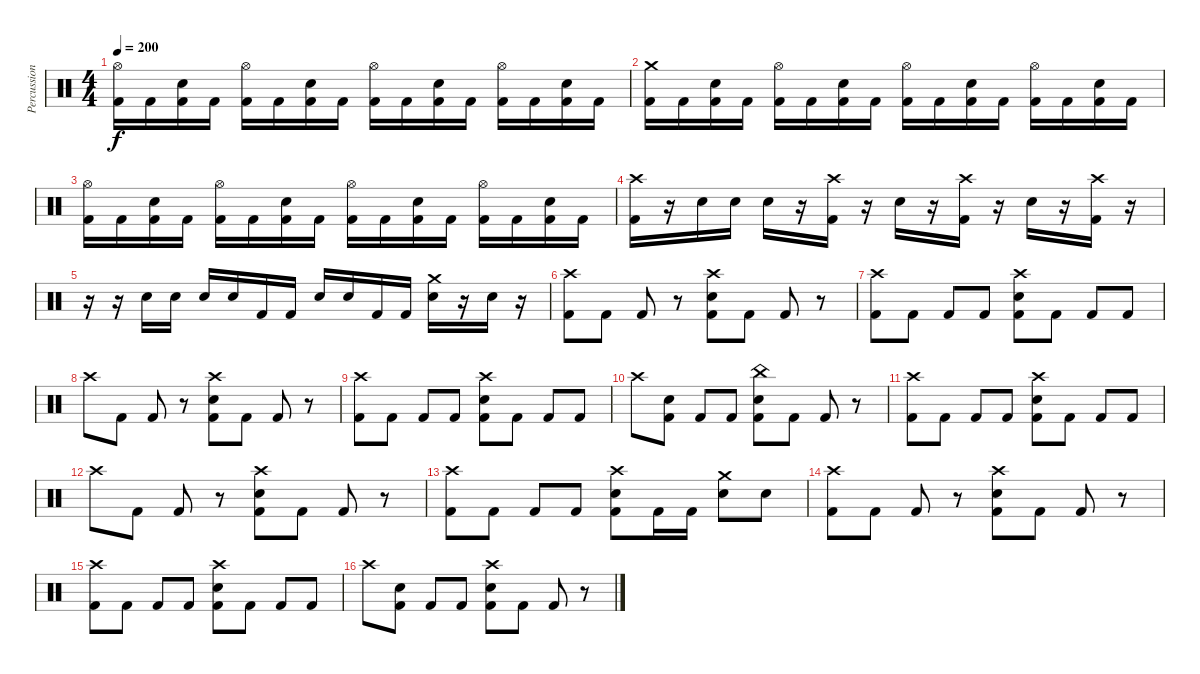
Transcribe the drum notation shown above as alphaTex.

\track ("Percussion" "Percussion") {instrument percussion}
\staff {score}
\articulation defaults
\ts (4 4)
\tempo 200
\clef neutral
\ks c
("Hi-Hat (open)" "Kick (hit) 2").16{dy f} "Kick (hit) 2".16 ("Electric Snare (hit)" "Kick (hit) 2").16 "Kick (hit) 2".16 ("Hi-Hat (open)" "Kick (hit) 2").16 "Kick (hit) 2".16 ("Electric Snare (hit)" "Kick (hit) 2").16 "Kick (hit) 2".16 ("Hi-Hat (open)" "Kick (hit) 2").16 "Kick (hit) 2".16 ("Electric Snare (hit)" "Kick (hit) 2").16 "Kick (hit) 2".16 ("Hi-Hat (open)" "Kick (hit) 2").16 "Kick (hit) 2".16 ("Electric Snare (hit)" "Kick (hit) 2").16 "Kick (hit) 2".16 |
("Crash medium (hit)" "Kick (hit) 2").16 "Kick (hit) 2".16 ("Electric Snare (hit)" "Kick (hit) 2").16 "Kick (hit) 2".16 ("Hi-Hat (open)" "Kick (hit) 2").16 "Kick (hit) 2".16 ("Electric Snare (hit)" "Kick (hit) 2").16 "Kick (hit) 2".16 ("Hi-Hat (open)" "Kick (hit) 2").16 "Kick (hit) 2".16 ("Electric Snare (hit)" "Kick (hit) 2").16 "Kick (hit) 2".16 ("Hi-Hat (open)" "Kick (hit) 2").16 "Kick (hit) 2".16 ("Electric Snare (hit)" "Kick (hit) 2").16 "Kick (hit) 2".16 |
("Hi-Hat (open)" "Kick (hit) 2").16 "Kick (hit) 2".16 ("Electric Snare (hit)" "Kick (hit) 2").16 "Kick (hit) 2".16 ("Hi-Hat (open)" "Kick (hit) 2").16 "Kick (hit) 2".16 ("Electric Snare (hit)" "Kick (hit) 2").16 "Kick (hit) 2".16 ("Hi-Hat (open)" "Kick (hit) 2").16 "Kick (hit) 2".16 ("Electric Snare (hit)" "Kick (hit) 2").16 "Kick (hit) 2".16 ("Hi-Hat (open)" "Kick (hit) 2").16 "Kick (hit) 2".16 ("Electric Snare (hit)" "Kick (hit) 2").16 "Kick (hit) 2".16 |
("Crash high (hit)" "Kick (hit) 2").16 r.16 "Electric Snare (hit)".16 "Electric Snare (hit)".16 "Electric Snare (hit)".16 r.16 ("Crash high (hit)" "Kick (hit) 2").16 r.16 "Electric Snare (hit)".16 r.16 ("Crash high (hit)" "Kick (hit) 2").16 r.16 "Electric Snare (hit)".16 r.16 ("Crash high (hit)" "Kick (hit) 2").16 r.16 |
r.16 r.16 "Electric Snare (hit)".16 "Electric Snare (hit)".16 "Electric Snare (hit)".16 "Electric Snare (hit)".16 "Kick (hit) 2".16 "Kick (hit) 2".16 "Electric Snare (hit)".16 "Electric Snare (hit)".16 "Kick (hit) 2".16 "Kick (hit) 2".16 ("Crash medium (hit)" "Electric Snare (hit)").16 r.16 "Electric Snare (hit)".16 r.16 |
("Crash high (hit)" "Kick (hit) 2").8 "Kick (hit) 2".8 "Kick (hit) 2".8 r.8 ("Crash high (hit)" "Electric Snare (hit)" "Kick (hit) 2").8 "Kick (hit) 2".8 "Kick (hit) 2".8 r.8 |
("Crash high (hit)" "Kick (hit) 2").8 "Kick (hit) 2".8 "Kick (hit) 2".8 "Kick (hit) 2".8 ("Crash high (hit)" "Electric Snare (hit)" "Kick (hit) 2").8 "Kick (hit) 2".8 "Kick (hit) 2".8 "Kick (hit) 2".8 |
"Crash high (hit)".8 "Kick (hit) 2".8 "Kick (hit) 2".8 r.8 ("Crash high (hit)" "Electric Snare (hit)" "Kick (hit) 2").8 "Kick (hit) 2".8 "Kick (hit) 2".8 r.8 |
("Crash high (hit)" "Kick (hit) 2").8 "Kick (hit) 2".8 "Kick (hit) 2".8 "Kick (hit) 2".8 ("Crash high (hit)" "Electric Snare (hit)" "Kick (hit) 2").8 "Kick (hit) 2".8 "Kick (hit) 2".8 "Kick (hit) 2".8 |
"Crash high (hit)".8 ("Electric Snare (hit)" "Kick (hit) 2").8 "Kick (hit) 2".8 "Kick (hit) 2".8 ("China (hit)" "Electric Snare (hit)" "Kick (hit) 2").8 "Kick (hit) 2".8 "Kick (hit) 2".8 r.8 |
("Crash high (hit)" "Kick (hit) 2").8 "Kick (hit) 2".8 "Kick (hit) 2".8 "Kick (hit) 2".8 ("Crash high (hit)" "Electric Snare (hit)" "Kick (hit) 2").8 "Kick (hit) 2".8 "Kick (hit) 2".8 "Kick (hit) 2".8 |
"Crash high (hit)".8 "Kick (hit) 2".8 "Kick (hit) 2".8 r.8 ("Crash high (hit)" "Electric Snare (hit)" "Kick (hit) 2").8 "Kick (hit) 2".8 "Kick (hit) 2".8 r.8 |
("Crash high (hit)" "Kick (hit) 2").8 "Kick (hit) 2".8 "Kick (hit) 2".8 "Kick (hit) 2".8 ("Crash high (hit)" "Electric Snare (hit)" "Kick (hit) 2").8 "Kick (hit) 2".16 "Kick (hit) 2".16 ("Crash medium (hit)" "Electric Snare (hit)").8 "Electric Snare (hit)".8 |
("Crash high (hit)" "Kick (hit) 2").8 "Kick (hit) 2".8 "Kick (hit) 2".8 r.8 ("Crash high (hit)" "Electric Snare (hit)" "Kick (hit) 2").8 "Kick (hit) 2".8 "Kick (hit) 2".8 r.8 |
("Crash high (hit)" "Kick (hit) 2").8 "Kick (hit) 2".8 "Kick (hit) 2".8 "Kick (hit) 2".8 ("Crash high (hit)" "Electric Snare (hit)" "Kick (hit) 2").8 "Kick (hit) 2".8 "Kick (hit) 2".8 "Kick (hit) 2".8 |
"Crash high (hit)".8 ("Electric Snare (hit)" "Kick (hit) 2").8 "Kick (hit) 2".8 "Kick (hit) 2".8 ("Crash high (hit)" "Electric Snare (hit)" "Kick (hit) 2").8 "Kick (hit) 2".8 "Kick (hit) 2".8 r.8
